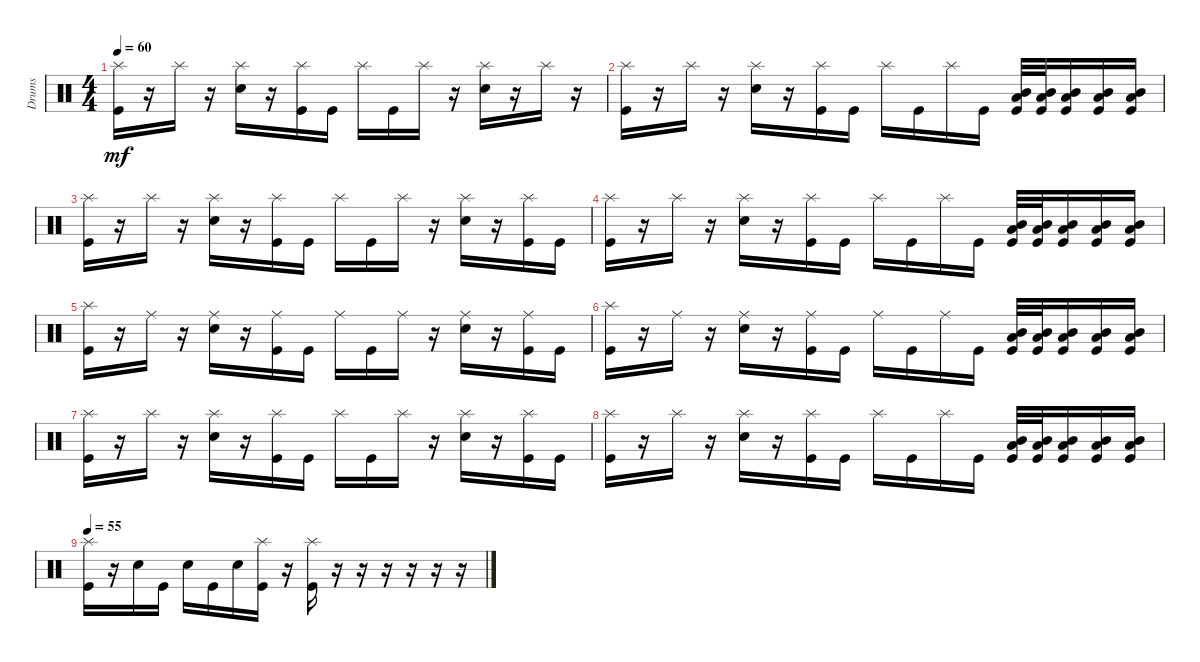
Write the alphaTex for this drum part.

\defaultSystemsLayout 4
\track ("Drumkit" "Drums") {instrument percussion}
\staff {score}
\articulation defaults
\ts (4 4)
\tempo 60
\clef neutral
\ks c
("Splash (hit)" "Kick (hit)").16{dy mf} r.16 "Splash (hit)".16 r.16 ("Splash (hit)" "Snare (hit) 2").16 r.16 ("Splash (hit)" "Kick (hit)").16 "Kick (hit)".16 "Splash (hit)".16 "Kick (hit)".16 "Splash (hit)".16 r.16 ("Splash (hit)" "Snare (hit) 2").16 r.16 "Splash (hit)".16 r.16 |
("Splash (hit)" "Kick (hit)").16 r.16 "Splash (hit)".16 r.16 ("Splash (hit)" "Snare (hit) 2").16 r.16 ("Splash (hit)" "Kick (hit)").16 "Kick (hit)".16 "Splash (hit)".16 "Kick (hit)".16 "Splash (hit)".16 "Kick (hit)".16 ("Mid Tom (hit)" "Low Tom (hit)" "Kick (hit)").32 ("Mid Tom (hit)" "Low Tom (hit)" "Kick (hit)").32 ("Mid Tom (hit)" "Low Tom (hit)" "Kick (hit)").16 ("Mid Tom (hit)" "Low Tom (hit)" "Kick (hit)").16 ("Mid Tom (hit)" "Low Tom (hit)" "Kick (hit)").16 |
("Splash (hit)" "Kick (hit)").16 r.16 "Splash (hit)".16 r.16 ("Splash (hit)" "Snare (hit) 2").16 r.16 ("Splash (hit)" "Kick (hit)").16 "Kick (hit)".16 "Splash (hit)".16 "Kick (hit)".16 "Splash (hit)".16 r.16 ("Splash (hit)" "Snare (hit) 2").16 r.16 ("Splash (hit)" "Kick (hit)").16 "Kick (hit)".16 |
("Splash (hit)" "Kick (hit)").16 r.16 "Splash (hit)".16 r.16 ("Splash (hit)" "Snare (hit) 2").16 r.16 ("Splash (hit)" "Kick (hit)").16 "Kick (hit)".16 "Splash (hit)".16 "Kick (hit)".16 "Splash (hit)".16 "Kick (hit)".16 ("Mid Tom (hit)" "Low Tom (hit)" "Kick (hit)").32 ("Mid Tom (hit)" "Low Tom (hit)" "Kick (hit)").32 ("Mid Tom (hit)" "Low Tom (hit)" "Kick (hit)").16 ("Mid Tom (hit)" "Low Tom (hit)" "Kick (hit)").16 ("Mid Tom (hit)" "Low Tom (hit)" "Kick (hit)").16 |
("Splash (hit)" "Kick (hit)").16 r.16 "Ride (middle)".16 r.16 ("Snare (hit) 2" "Ride (middle)").16 r.16 ("Kick (hit)" "Ride (middle)").16 "Kick (hit)".16 "Ride (middle)".16 "Kick (hit)".16 "Ride (middle)".16 r.16 ("Snare (hit) 2" "Ride (middle)").16 r.16 ("Kick (hit)" "Ride (middle)").16 "Kick (hit)".16 |
("Splash (hit)" "Kick (hit)").16 r.16 "Ride (middle)".16 r.16 ("Snare (hit) 2" "Ride (middle)").16 r.16 ("Kick (hit)" "Ride (middle)").16 "Kick (hit)".16 "Ride (middle)".16 "Kick (hit)".16 "Ride (middle)".16 "Kick (hit)".16 ("Mid Tom (hit)" "Low Tom (hit)" "Kick (hit)").32 ("Mid Tom (hit)" "Low Tom (hit)" "Kick (hit)").32 ("Mid Tom (hit)" "Low Tom (hit)" "Kick (hit)").16 ("Mid Tom (hit)" "Low Tom (hit)" "Kick (hit)").16 ("Mid Tom (hit)" "Low Tom (hit)" "Kick (hit)").16 |
("Splash (hit)" "Kick (hit)").16 r.16 "Splash (hit)".16 r.16 ("Splash (hit)" "Snare (hit) 2").16 r.16 ("Splash (hit)" "Kick (hit)").16 "Kick (hit)".16 "Splash (hit)".16 "Kick (hit)".16 "Splash (hit)".16 r.16 ("Splash (hit)" "Snare (hit) 2").16 r.16 ("Splash (hit)" "Kick (hit)").16 "Kick (hit)".16 |
("Splash (hit)" "Kick (hit)").16 r.16 "Splash (hit)".16 r.16 ("Splash (hit)" "Snare (hit) 2").16 r.16 ("Splash (hit)" "Kick (hit)").16 "Kick (hit)".16 "Splash (hit)".16 "Kick (hit)".16 "Splash (hit)".16 "Kick (hit)".16 ("Mid Tom (hit)" "Low Tom (hit)" "Kick (hit)").32 ("Mid Tom (hit)" "Low Tom (hit)" "Kick (hit)").32 ("Mid Tom (hit)" "Low Tom (hit)" "Kick (hit)").16 ("Mid Tom (hit)" "Low Tom (hit)" "Kick (hit)").16 ("Mid Tom (hit)" "Low Tom (hit)" "Kick (hit)").16 |
\tempo 55
("Kick (hit)" "Splash (hit)").16 r.16 "Snare (hit) 2".16 "Kick (hit)".16 "Snare (hit) 2".16 "Kick (hit)".16 "Snare (hit) 2".16 ("Kick (hit)" "Splash (hit)").16 r.16 ("Kick (hit)" "Splash (hit)").16 r.16 r.16 r.16 r.16 r.16 r.16
